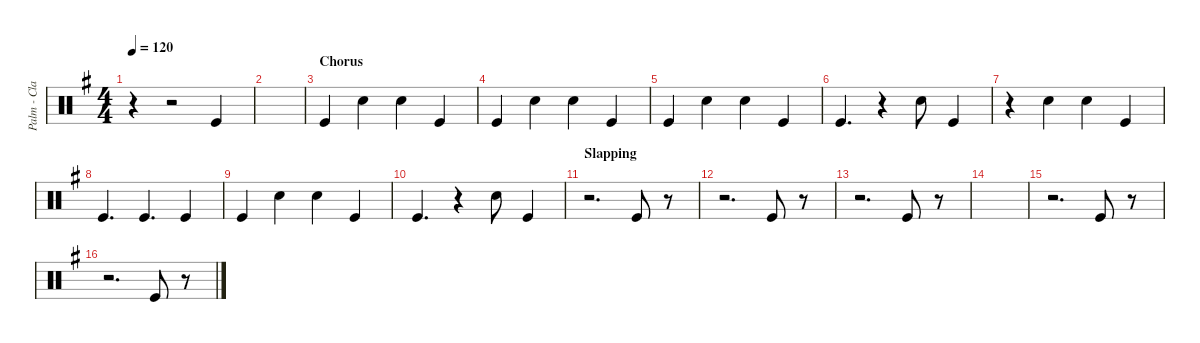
\defaultSystemsLayout 4
\hideDynamics
\bracketExtendMode nobrackets
\otherSystemsTrackNameOrientation horizontal
\track ("Palm - Clap" "Palm - Cla") {defaultSystemsLayout 2 instrument percussion}
\staff {score}
\articulation defaults
\ts (4 4)
\tempo 120
\clef neutral
\ks g
r.4{dy mp} r.2 "Kick (hit)"{acc forcenatural}.4 |
|
\section ("" "Chorus")
"Kick (hit)"{acc forcenatural}.4 "Hand Clap (hit)"{acc forcenatural}.4 "Hand Clap (hit)"{acc forcenatural}.4 "Kick (hit)"{acc forcenatural}.4 |
"Kick (hit)"{acc forcenatural}.4 "Hand Clap (hit)"{acc forcenatural}.4 "Hand Clap (hit)"{acc forcenatural}.4 "Kick (hit)"{acc forcenatural}.4 |
"Kick (hit)"{acc forcenatural}.4 "Hand Clap (hit)"{acc forcenatural}.4 "Hand Clap (hit)"{acc forcenatural}.4 "Kick (hit)"{acc forcenatural}.4 |
"Kick (hit)"{acc forcenatural}.4{d} r.4 "Hand Clap (hit)"{acc forcenatural}.8 "Kick (hit)"{acc forcenatural}.4 |
r.4 "Hand Clap (hit)"{acc forcenatural}.4 "Hand Clap (hit)"{acc forcenatural}.4 "Kick (hit)"{acc forcenatural}.4 |
"Kick (hit)"{acc forcenatural}.4{d} "Kick (hit)"{acc forcenatural}.4{d} "Kick (hit)"{acc forcenatural}.4 |
"Kick (hit)"{acc forcenatural}.4 "Hand Clap (hit)"{acc forcenatural}.4 "Hand Clap (hit)"{acc forcenatural}.4 "Kick (hit)"{acc forcenatural}.4 |
"Kick (hit)"{acc forcenatural}.4{d} r.4 "Hand Clap (hit)"{acc forcenatural}.8 "Kick (hit)"{acc forcenatural}.4 |
\section ("" "Slapping")
r.2{d} "Kick (hit)"{acc forcenatural}.8 r.8 |
r.2{d} "Kick (hit)"{acc forcenatural}.8 r.8 |
r.2{d} "Kick (hit)"{acc forcenatural}.8 r.8 |
|
r.2{d} "Kick (hit)"{acc forcenatural}.8 r.8 |
r.2{d} "Kick (hit)"{acc forcenatural}.8 r.8
